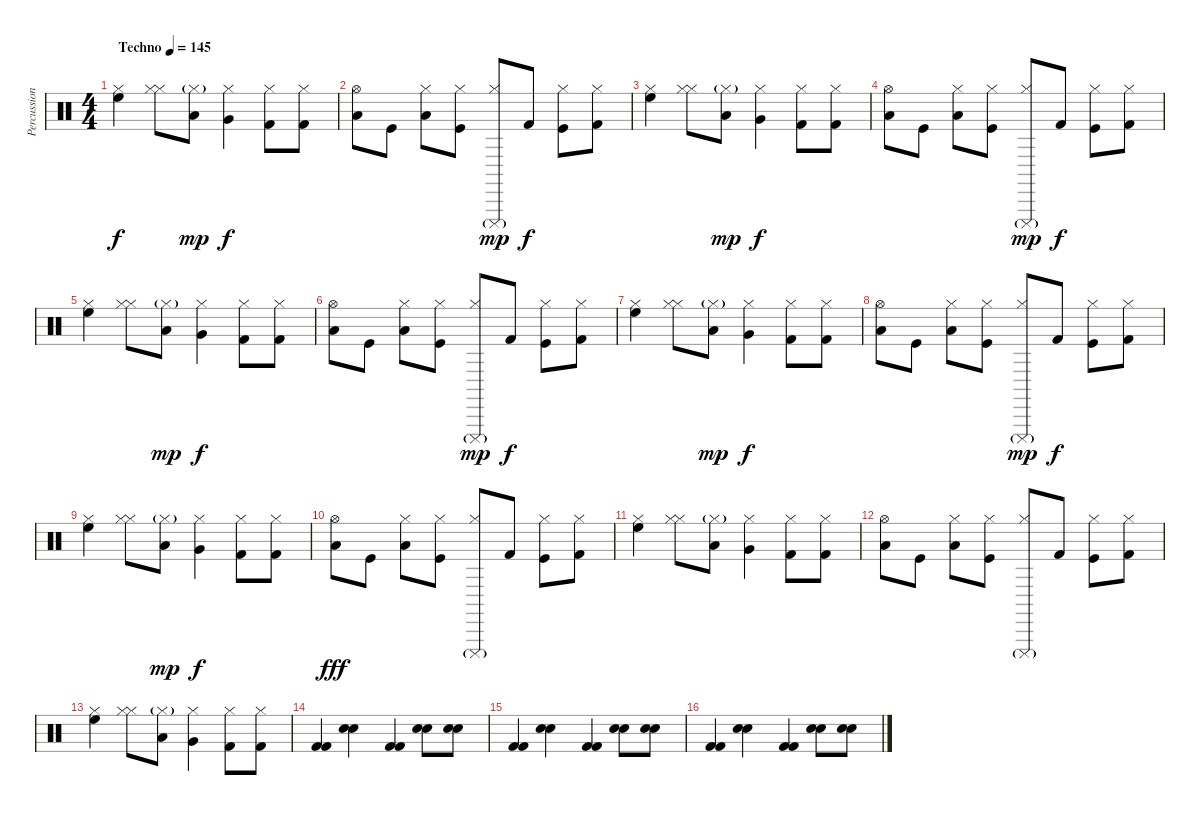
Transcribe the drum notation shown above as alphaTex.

\track ("Percussion ( Keyboard )" "Percussion") {instrument percussion bank 4}
\staff {score}
\articulation defaults
\ts (4 4)
\tempo (145 "Techno")
\clef neutral
\ks c
("High Floor Tom (hit)" "Hi-Hat (closed)").4{dy f} ("Hi-Hat (closed)" "Hi-Hat (closed)").8 ("Low Floor Tom (hit)" "Hi-Hat (closed)"{g}).8{dy mp} ("Very Low Tom (hit)" "Hi-Hat (closed)").4{dy f} ("Kick (hit) 2" "Hi-Hat (closed)").8 ("Kick (hit) 2" "Hi-Hat (closed)").8 |
("Low Tom (hit)" "Hi-Hat (open)").8 "Kick (hit)".8 ("Low Floor Tom (hit)" "Hi-Hat (closed)").8 ("Kick (hit)" "Hi-Hat (closed)").8 ("Cuica (mute)"{g} "Hi-Hat (closed)").8{dy mp} "Kick (hit) 2".8{dy f} ("Kick (hit)" "Hi-Hat (closed)").8 ("Kick (hit) 2" "Hi-Hat (closed)").8 |
("High Floor Tom (hit)" "Hi-Hat (closed)").4 ("Hi-Hat (closed)" "Hi-Hat (closed)").8 ("Low Floor Tom (hit)" "Hi-Hat (closed)"{g}).8{dy mp} ("Very Low Tom (hit)" "Hi-Hat (closed)").4{dy f} ("Kick (hit) 2" "Hi-Hat (closed)").8 ("Kick (hit) 2" "Hi-Hat (closed)").8 |
("Low Tom (hit)" "Hi-Hat (open)").8 "Kick (hit)".8 ("Low Floor Tom (hit)" "Hi-Hat (closed)").8 ("Kick (hit)" "Hi-Hat (closed)").8 ("Cuica (mute)"{g} "Hi-Hat (closed)").8{dy mp} "Kick (hit) 2".8{dy f} ("Kick (hit)" "Hi-Hat (closed)").8 ("Kick (hit) 2" "Hi-Hat (closed)").8 |
("High Floor Tom (hit)" "Hi-Hat (closed)").4 ("Hi-Hat (closed)" "Hi-Hat (closed)").8 ("Low Floor Tom (hit)" "Hi-Hat (closed)"{g}).8{dy mp} ("Very Low Tom (hit)" "Hi-Hat (closed)").4{dy f} ("Kick (hit) 2" "Hi-Hat (closed)").8 ("Kick (hit) 2" "Hi-Hat (closed)").8 |
("Low Tom (hit)" "Hi-Hat (open)").8 "Kick (hit)".8 ("Low Floor Tom (hit)" "Hi-Hat (closed)").8 ("Kick (hit)" "Hi-Hat (closed)").8 ("Cuica (mute)"{g} "Hi-Hat (closed)").8{dy mp} "Kick (hit) 2".8{dy f} ("Kick (hit)" "Hi-Hat (closed)").8 ("Kick (hit) 2" "Hi-Hat (closed)").8 |
("High Floor Tom (hit)" "Hi-Hat (closed)").4 ("Hi-Hat (closed)" "Hi-Hat (closed)").8 ("Low Floor Tom (hit)" "Hi-Hat (closed)"{g}).8{dy mp} ("Very Low Tom (hit)" "Hi-Hat (closed)").4{dy f} ("Kick (hit) 2" "Hi-Hat (closed)").8 ("Kick (hit) 2" "Hi-Hat (closed)").8 |
("Low Tom (hit)" "Hi-Hat (open)").8 "Kick (hit)".8 ("Low Floor Tom (hit)" "Hi-Hat (closed)").8 ("Kick (hit)" "Hi-Hat (closed)").8 ("Cuica (mute)"{g} "Hi-Hat (closed)").8{dy mp} "Kick (hit) 2".8{dy f} ("Kick (hit)" "Hi-Hat (closed)").8 ("Kick (hit) 2" "Hi-Hat (closed)").8 |
("High Floor Tom (hit)" "Hi-Hat (closed)").4 ("Hi-Hat (closed)" "Hi-Hat (closed)").8 ("Low Floor Tom (hit)" "Hi-Hat (closed)"{g}).8{dy mp} ("Very Low Tom (hit)" "Hi-Hat (closed)").4{dy f} ("Kick (hit) 2" "Hi-Hat (closed)").8 ("Kick (hit) 2" "Hi-Hat (closed)").8 |
("Low Tom (hit)" "Hi-Hat (open)").8{dy fff} "Kick (hit)".8 ("Low Floor Tom (hit)" "Hi-Hat (closed)").8 ("Kick (hit)" "Hi-Hat (closed)").8 ("Cuica (mute)"{g} "Hi-Hat (closed)").8 "Kick (hit) 2".8 ("Kick (hit)" "Hi-Hat (closed)").8 ("Kick (hit) 2" "Hi-Hat (closed)").8 |
("High Floor Tom (hit)" "Hi-Hat (closed)").4 ("Hi-Hat (closed)" "Hi-Hat (closed)").8 ("Low Floor Tom (hit)" "Hi-Hat (closed)"{g}).8 ("Very Low Tom (hit)" "Hi-Hat (closed)").4 ("Kick (hit) 2" "Hi-Hat (closed)").8 ("Kick (hit) 2" "Hi-Hat (closed)").8 |
("Low Tom (hit)" "Hi-Hat (open)").8 "Kick (hit)".8 ("Low Floor Tom (hit)" "Hi-Hat (closed)").8 ("Kick (hit)" "Hi-Hat (closed)").8 ("Cuica (mute)"{g} "Hi-Hat (closed)").8 "Kick (hit) 2".8 ("Kick (hit)" "Hi-Hat (closed)").8 ("Kick (hit) 2" "Hi-Hat (closed)").8 |
("High Floor Tom (hit)" "Hi-Hat (closed)").4 ("Hi-Hat (closed)" "Hi-Hat (closed)").8 ("Low Floor Tom (hit)" "Hi-Hat (closed)"{g}).8 ("Very Low Tom (hit)" "Hi-Hat (closed)").4 ("Kick (hit) 2" "Hi-Hat (closed)").8 ("Kick (hit) 2" "Hi-Hat (closed)").8 |
("Kick (hit) 2" "Kick (hit) 2").4 ("Electric Snare (hit)" "Hand Clap (hit)").4 ("Kick (hit) 2" "Kick (hit) 2").4 ("Electric Snare (hit)" "Hand Clap (hit)").8 ("Electric Snare (hit)" "Hand Clap (hit)").8 |
("Kick (hit) 2" "Kick (hit) 2").4 ("Electric Snare (hit)" "Hand Clap (hit)").4 ("Kick (hit) 2" "Kick (hit) 2").4 ("Electric Snare (hit)" "Hand Clap (hit)").8 ("Electric Snare (hit)" "Hand Clap (hit)").8 |
("Kick (hit) 2" "Kick (hit) 2").4 ("Electric Snare (hit)" "Hand Clap (hit)").4 ("Kick (hit) 2" "Kick (hit) 2").4 ("Electric Snare (hit)" "Hand Clap (hit)").8 ("Electric Snare (hit)" "Hand Clap (hit)").8
